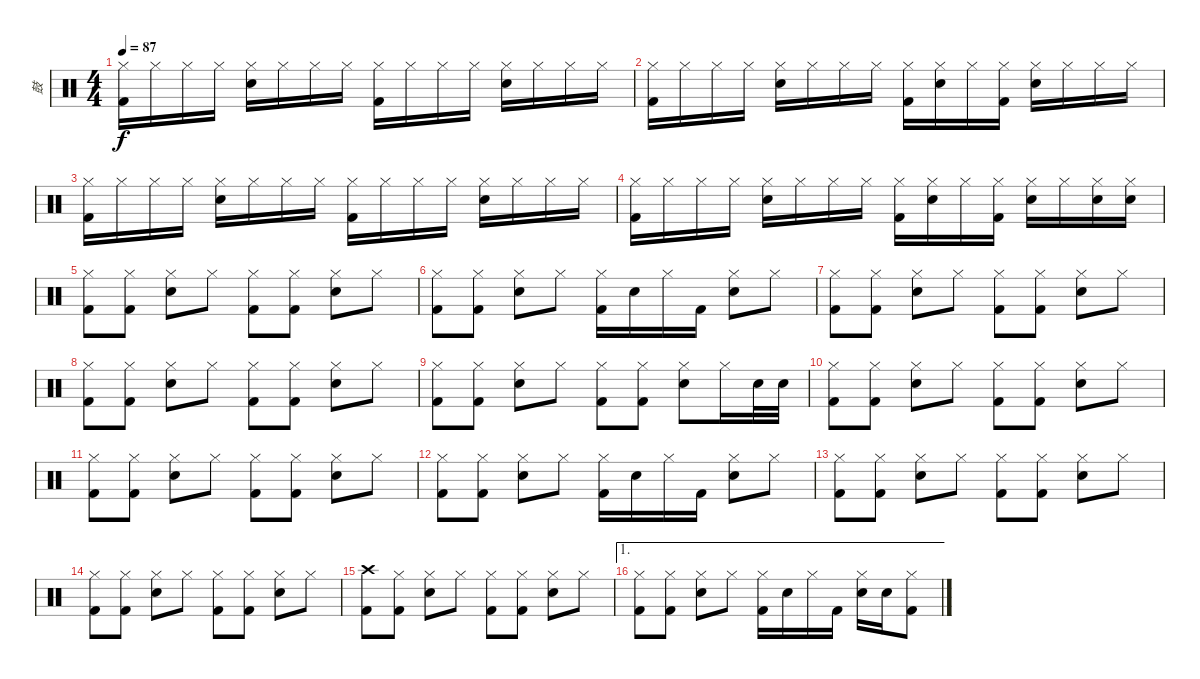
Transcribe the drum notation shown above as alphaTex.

\track ("鼓" "鼓") {instrument percussion}
\staff {score}
\articulation defaults
\ts (4 4)
\tempo 87
\clef neutral
\ks c
("Hi-Hat (closed)" "Kick (hit) 2").16{dy f} "Hi-Hat (closed)".16 "Hi-Hat (closed)".16 "Hi-Hat (closed)".16 ("Hi-Hat (closed)" "Snare (hit) 2").16 "Hi-Hat (closed)".16 "Hi-Hat (closed)".16 "Hi-Hat (closed)".16 ("Hi-Hat (closed)" "Kick (hit) 2").16 "Hi-Hat (closed)".16 "Hi-Hat (closed)".16 "Hi-Hat (closed)".16 ("Hi-Hat (closed)" "Snare (hit) 2").16 "Hi-Hat (closed)".16 "Hi-Hat (closed)".16 "Hi-Hat (closed)".16 |
("Hi-Hat (closed)" "Kick (hit) 2").16 "Hi-Hat (closed)".16 "Hi-Hat (closed)".16 "Hi-Hat (closed)".16 ("Hi-Hat (closed)" "Snare (hit) 2").16 "Hi-Hat (closed)".16 "Hi-Hat (closed)".16 "Hi-Hat (closed)".16 ("Hi-Hat (closed)" "Kick (hit) 2").16 ("Hi-Hat (closed)" "Snare (hit) 2").16 "Hi-Hat (closed)".16 ("Hi-Hat (closed)" "Kick (hit) 2").16 ("Hi-Hat (closed)" "Snare (hit) 2").16 "Hi-Hat (closed)".16 "Hi-Hat (closed)".16 "Hi-Hat (closed)".16 |
("Hi-Hat (closed)" "Kick (hit) 2").16 "Hi-Hat (closed)".16 "Hi-Hat (closed)".16 "Hi-Hat (closed)".16 ("Hi-Hat (closed)" "Snare (hit) 2").16 "Hi-Hat (closed)".16 "Hi-Hat (closed)".16 "Hi-Hat (closed)".16 ("Hi-Hat (closed)" "Kick (hit) 2").16 "Hi-Hat (closed)".16 "Hi-Hat (closed)".16 "Hi-Hat (closed)".16 ("Hi-Hat (closed)" "Snare (hit) 2").16 "Hi-Hat (closed)".16 "Hi-Hat (closed)".16 "Hi-Hat (closed)".16 |
("Hi-Hat (closed)" "Kick (hit) 2").16 "Hi-Hat (closed)".16 "Hi-Hat (closed)".16 "Hi-Hat (closed)".16 ("Hi-Hat (closed)" "Snare (hit) 2").16 "Hi-Hat (closed)".16 "Hi-Hat (closed)".16 "Hi-Hat (closed)".16 ("Hi-Hat (closed)" "Kick (hit) 2").16 ("Hi-Hat (closed)" "Snare (hit) 2").16 "Hi-Hat (closed)".16 ("Hi-Hat (closed)" "Kick (hit) 2").16 ("Hi-Hat (closed)" "Snare (hit) 2").16 "Hi-Hat (closed)".16 ("Hi-Hat (closed)" "Snare (hit) 2").16 ("Hi-Hat (closed)" "Snare (hit) 2").16 |
("Hi-Hat (closed)" "Kick (hit) 2").8 ("Hi-Hat (closed)" "Kick (hit) 2").8 ("Hi-Hat (closed)" "Snare (hit) 2").8 "Hi-Hat (closed)".8 ("Hi-Hat (closed)" "Kick (hit) 2").8 ("Hi-Hat (closed)" "Kick (hit) 2").8 ("Hi-Hat (closed)" "Snare (hit) 2").8 "Hi-Hat (closed)".8 |
("Hi-Hat (closed)" "Kick (hit) 2").8 ("Hi-Hat (closed)" "Kick (hit) 2").8 ("Hi-Hat (closed)" "Snare (hit) 2").8 "Hi-Hat (closed)".8 ("Hi-Hat (closed)" "Kick (hit) 2").16 "Snare (hit) 2".16 "Hi-Hat (closed)".16 "Kick (hit) 2".16 ("Hi-Hat (closed)" "Snare (hit) 2").8 "Hi-Hat (closed)".8 |
("Hi-Hat (closed)" "Kick (hit) 2").8 ("Hi-Hat (closed)" "Kick (hit) 2").8 ("Hi-Hat (closed)" "Snare (hit) 2").8 "Hi-Hat (closed)".8 ("Hi-Hat (closed)" "Kick (hit) 2").8 ("Hi-Hat (closed)" "Kick (hit) 2").8 ("Hi-Hat (closed)" "Snare (hit) 2").8 "Hi-Hat (closed)".8 |
("Hi-Hat (closed)" "Kick (hit) 2").8 ("Hi-Hat (closed)" "Kick (hit) 2").8 ("Hi-Hat (closed)" "Snare (hit) 2").8 "Hi-Hat (closed)".8 ("Hi-Hat (closed)" "Kick (hit) 2").8 ("Hi-Hat (closed)" "Kick (hit) 2").8 ("Hi-Hat (closed)" "Snare (hit) 2").8 "Hi-Hat (closed)".8 |
("Hi-Hat (closed)" "Kick (hit) 2").8 ("Hi-Hat (closed)" "Kick (hit) 2").8 ("Hi-Hat (closed)" "Snare (hit) 2").8 "Hi-Hat (closed)".8 ("Hi-Hat (closed)" "Kick (hit) 2").8 ("Hi-Hat (closed)" "Kick (hit) 2").8 ("Hi-Hat (closed)" "Snare (hit) 2").8 "Hi-Hat (closed)".16 "Snare (hit) 2".32 "Snare (hit) 2".32 |
("Hi-Hat (closed)" "Kick (hit) 2").8 ("Hi-Hat (closed)" "Kick (hit) 2").8 ("Hi-Hat (closed)" "Snare (hit) 2").8 "Hi-Hat (closed)".8 ("Hi-Hat (closed)" "Kick (hit) 2").8 ("Hi-Hat (closed)" "Kick (hit) 2").8 ("Hi-Hat (closed)" "Snare (hit) 2").8 "Hi-Hat (closed)".8 |
("Hi-Hat (closed)" "Kick (hit) 2").8 ("Hi-Hat (closed)" "Kick (hit) 2").8 ("Hi-Hat (closed)" "Snare (hit) 2").8 "Hi-Hat (closed)".8 ("Hi-Hat (closed)" "Kick (hit) 2").8 ("Hi-Hat (closed)" "Kick (hit) 2").8 ("Hi-Hat (closed)" "Snare (hit) 2").8 "Hi-Hat (closed)".8 |
("Hi-Hat (closed)" "Kick (hit) 2").8 ("Hi-Hat (closed)" "Kick (hit) 2").8 ("Hi-Hat (closed)" "Snare (hit) 2").8 "Hi-Hat (closed)".8 ("Hi-Hat (closed)" "Kick (hit) 2").16 "Snare (hit) 2".16 "Hi-Hat (closed)".16 "Kick (hit) 2".16 ("Hi-Hat (closed)" "Snare (hit) 2").8 "Hi-Hat (closed)".8 |
("Hi-Hat (closed)" "Kick (hit) 2").8 ("Hi-Hat (closed)" "Kick (hit) 2").8 ("Hi-Hat (closed)" "Snare (hit) 2").8 "Hi-Hat (closed)".8 ("Hi-Hat (closed)" "Kick (hit) 2").8 ("Hi-Hat (closed)" "Kick (hit) 2").8 ("Hi-Hat (closed)" "Snare (hit) 2").8 "Hi-Hat (closed)".8 |
("Hi-Hat (closed)" "Kick (hit) 2").8 ("Hi-Hat (closed)" "Kick (hit) 2").8 ("Hi-Hat (closed)" "Snare (hit) 2").8 "Hi-Hat (closed)".8 ("Hi-Hat (closed)" "Kick (hit) 2").8 ("Hi-Hat (closed)" "Kick (hit) 2").8 ("Hi-Hat (closed)" "Snare (hit) 2").8 "Hi-Hat (closed)".8 |
("Crash high (hit)" "Kick (hit) 2").8 ("Hi-Hat (closed)" "Kick (hit) 2").8 ("Hi-Hat (closed)" "Snare (hit) 2").8 "Hi-Hat (closed)".8 ("Hi-Hat (closed)" "Kick (hit) 2").8 ("Hi-Hat (closed)" "Kick (hit) 2").8 ("Hi-Hat (closed)" "Snare (hit) 2").8 "Hi-Hat (closed)".8 |
\ae 1
("Hi-Hat (closed)" "Kick (hit) 2").8 ("Hi-Hat (closed)" "Kick (hit) 2").8 ("Hi-Hat (closed)" "Snare (hit) 2").8 "Hi-Hat (closed)".8 ("Hi-Hat (closed)" "Kick (hit) 2").16 "Snare (hit) 2".16 "Hi-Hat (closed)".16 "Kick (hit) 2".16 ("Hi-Hat (closed)" "Snare (hit) 2").16 "Snare (hit) 2".16 ("Hi-Hat (closed)" "Kick (hit) 2").8
